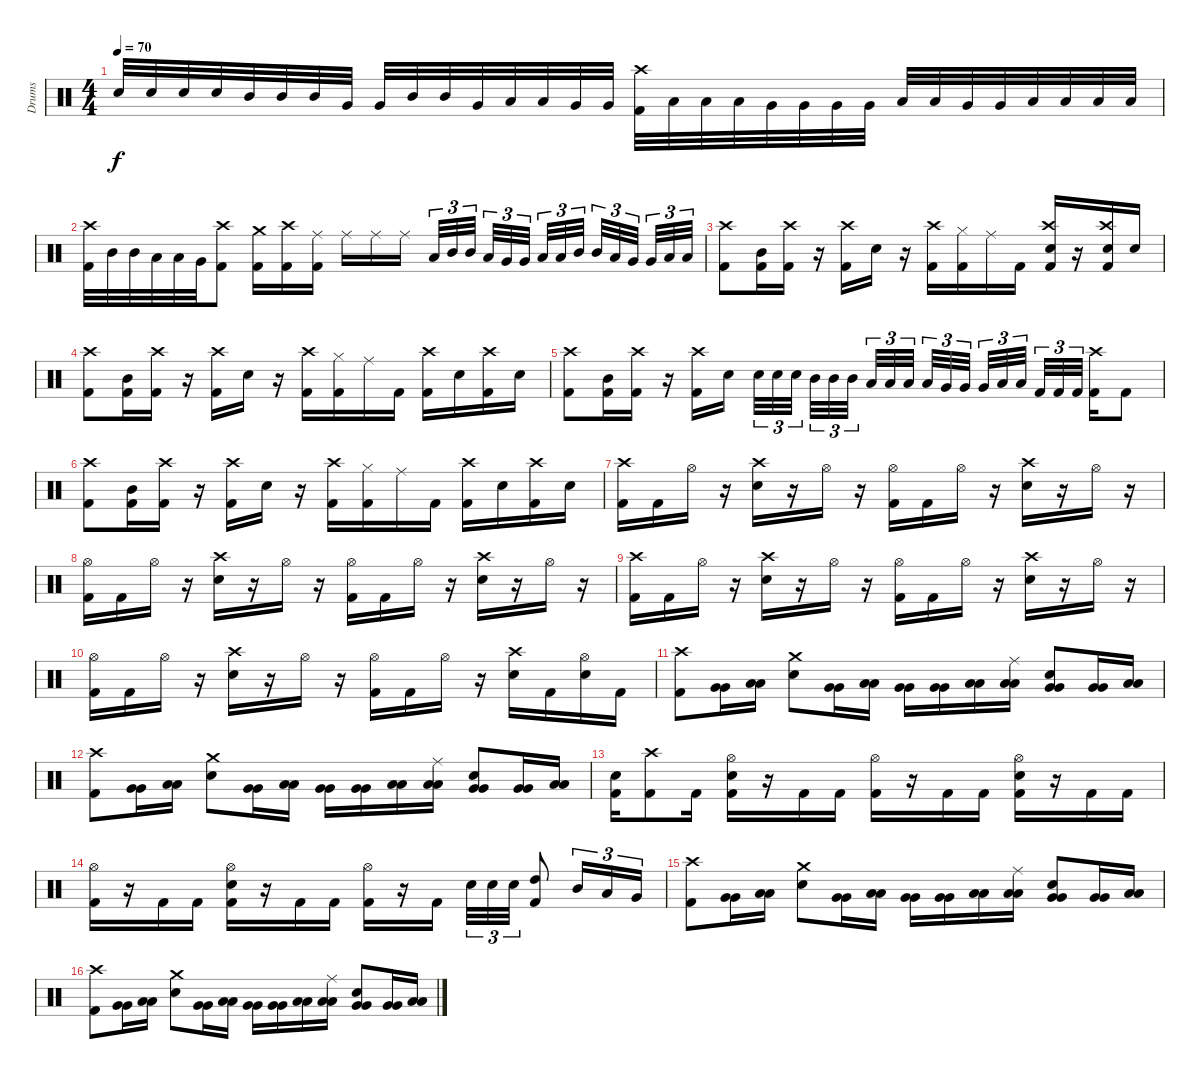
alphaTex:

\track ("Drums" "Drums") {instrument percussion}
\staff {score}
\articulation defaults
\ts (4 4)
\tempo 70
\clef neutral
\ks c "Snare (hit) 2".32{dy f} "Snare (hit) 2".32 "Snare (hit) 2".32 "Snare (hit) 2".32 "Mid Tom (hit)".32 "Mid Tom (hit)".32 "Mid Tom (hit)".32 "Very Low Tom (hit)".32 "Very Low Tom (hit)".32 "Mid Tom (hit)".32 "Mid Tom (hit)".32 "Very Low Tom (hit)".32 "Low Tom (hit)".32 "Low Tom (hit)".32 "Very Low Tom (hit)".32 "Very Low Tom (hit)".32
("Crash high (hit)" "Kick (hit) 2").32 "Low Tom (hit)".32 "Low Tom (hit)".32 "Low Tom (hit)".32 "Very Low Tom (hit)".32 "Very Low Tom (hit)".32 "Very Low Tom (hit)".32 "Very Low Tom (hit)".32 "Low Floor Tom (hit)".32 "Low Floor Tom (hit)".32 "Very Low Tom (hit)".32 "Very Low Tom (hit)".32 "Low Tom (hit)".32 "Low Tom (hit)".32 "Low Floor Tom (hit)".32 "Low Floor Tom (hit)".32 |
("Crash high (hit)" "Kick (hit) 2").32 "Mid Tom (hit)".32 "Mid Tom (hit)".32 "Low Tom (hit)".32 "Low Tom (hit)".32 "Very Low Tom (hit)".32 ("Crash high (hit)" "Kick (hit) 2").8 ("Crash medium (hit)" "Kick (hit) 2").16 ("Crash high (hit)" "Kick (hit) 2").16 ("Ride (middle)" "Kick (hit) 2").16 "Ride (middle)".16 "Ride (middle)".16 "Ride (middle)".16 "Low Floor Tom (hit)".32{tu (3 2)} "Mid Tom (hit)".32{tu (3 2)} "Mid Tom (hit)".32{tu (3 2)} "Low Tom (hit)".32{tu (3 2)} "Very Low Tom (hit)".32{tu (3 2)} "Very Low Tom (hit)".32{tu (3 2)} "Low Floor Tom (hit)".32{tu (3 2)} "Low Floor Tom (hit)".32{tu (3 2)} "Mid Tom (hit)".32{tu (3 2)} "Mid Tom (hit)".32{tu (3 2)} "Low Tom (hit)".32{tu (3 2)} "Very Low Tom (hit)".32{tu (3 2)} "Very Low Tom (hit)".32{tu (3 2)} "Low Floor Tom (hit)".32{tu (3 2)} "Low Floor Tom (hit)".32{tu (3 2)} |
("Crash high (hit)" "Kick (hit) 2").8 ("Mid Tom (hit)" "Kick (hit) 2").16 ("Crash high (hit)" "Kick (hit) 2").16 r.16 ("Crash high (hit)" "Kick (hit) 2").16 "Snare (hit) 2".16 r.16 ("Crash high (hit)" "Kick (hit) 2").16 ("Hi-Hat (closed)" "Kick (hit) 2").16 "Ride (middle)".16 "Kick (hit) 2".16 ("Crash high (hit)" "Snare (hit) 2" "Kick (hit) 2").16 r.16 ("Crash high (hit)" "Snare (hit) 2" "Kick (hit) 2").16 "Snare (hit) 2".16 |
("Crash high (hit)" "Kick (hit) 2").8 ("Mid Tom (hit)" "Kick (hit) 2").16 ("Crash high (hit)" "Kick (hit) 2").16 r.16 ("Crash high (hit)" "Kick (hit) 2").16 "Snare (hit) 2".16 r.16 ("Crash high (hit)" "Kick (hit) 2").16 ("Hi-Hat (closed)" "Kick (hit) 2").16 "Ride (middle)".16 "Kick (hit) 2".16 ("Crash high (hit)" "Kick (hit) 2").16 "Snare (hit) 2".16 ("Crash high (hit)" "Kick (hit) 2").16 "Snare (hit) 2".16 |
("Crash high (hit)" "Kick (hit) 2").8 ("Mid Tom (hit)" "Kick (hit) 2").16 ("Crash high (hit)" "Kick (hit) 2").16 r.16 ("Crash high (hit)" "Kick (hit) 2").16 "Snare (hit) 2".16 "Snare (hit) 2".32{tu (3 2)} "Snare (hit) 2".32{tu (3 2)} "Snare (hit) 2".32{tu (3 2)} "Mid Tom (hit)".32{tu (3 2)} "Mid Tom (hit)".32{tu (3 2)} "Mid Tom (hit)".32{tu (3 2)} "Low Tom (hit)".32{tu (3 2)} "Low Tom (hit)".32{tu (3 2)} "Low Tom (hit)".32{tu (3 2)} "Low Tom (hit)".32{tu (3 2)} "Very Low Tom (hit)".32{tu (3 2)} "Very Low Tom (hit)".32{tu (3 2)} "Very Low Tom (hit)".32{tu (3 2)} "Low Floor Tom (hit)".32{tu (3 2)} "Low Floor Tom (hit)".32{tu (3 2)} "Kick (hit) 2".32{tu (3 2)} "Kick (hit) 2".32{tu (3 2)} "Kick (hit) 2".32{tu (3 2)} ("Crash high (hit)" "Kick (hit) 2").16 "Kick (hit) 2".8 |
("Crash high (hit)" "Kick (hit) 2").8 ("Mid Tom (hit)" "Kick (hit) 2").16 ("Crash high (hit)" "Kick (hit) 2").16 r.16 ("Crash high (hit)" "Kick (hit) 2").16 "Snare (hit) 2".16 r.16 ("Crash high (hit)" "Kick (hit) 2").16 ("Hi-Hat (closed)" "Kick (hit) 2").16 "Ride (middle)".16 "Kick (hit) 2".16 ("Crash high (hit)" "Kick (hit) 2").16 "Snare (hit) 2".16 ("Crash high (hit)" "Kick (hit) 2").16 "Snare (hit) 2".16 |
("Crash high (hit)" "Kick (hit) 2").16 "Kick (hit) 2".16 "Hi-Hat (open)".16 r.16 ("Crash high (hit)" "Snare (hit) 2").16 r.16 "Hi-Hat (open)".16 r.16 ("Hi-Hat (open)" "Kick (hit) 2").16 "Kick (hit) 2".16 "Hi-Hat (open)".16 r.16 ("Crash high (hit)" "Snare (hit) 2").16 r.16 "Hi-Hat (open)".16 r.16 |
("Hi-Hat (open)" "Kick (hit) 2").16 "Kick (hit) 2".16 "Hi-Hat (open)".16 r.16 ("Crash high (hit)" "Snare (hit) 2").16 r.16 "Hi-Hat (open)".16 r.16 ("Hi-Hat (open)" "Kick (hit) 2").16 "Kick (hit) 2".16 "Hi-Hat (open)".16 r.16 ("Crash high (hit)" "Snare (hit) 2").16 r.16 "Hi-Hat (open)".16 r.16 |
("Crash high (hit)" "Kick (hit) 2").16 "Kick (hit) 2".16 "Hi-Hat (open)".16 r.16 ("Crash high (hit)" "Snare (hit) 2").16 r.16 "Hi-Hat (open)".16 r.16 ("Hi-Hat (open)" "Kick (hit) 2").16 "Kick (hit) 2".16 "Hi-Hat (open)".16 r.16 ("Crash high (hit)" "Snare (hit) 2").16 r.16 "Hi-Hat (open)".16 r.16 |
("Hi-Hat (open)" "Kick (hit) 2").16 "Kick (hit) 2".16 "Hi-Hat (open)".16 r.16 ("Crash high (hit)" "Snare (hit) 2").16 r.16 "Hi-Hat (open)".16 r.16 ("Hi-Hat (open)" "Kick (hit) 2").16 "Kick (hit) 2".16 "Hi-Hat (open)".16 r.16 ("Crash high (hit)" "Snare (hit) 2").16 "Kick (hit) 2".16 ("Hi-Hat (open)" "Snare (hit) 2").16 "Kick (hit) 2".16 |
("Crash high (hit)" "Kick (hit) 2").8 ("Very Low Tom (hit)" "Very Low Tom (hit)").16 ("Low Floor Tom (hit)" "Low Floor Tom (hit)").16 ("Crash medium (hit)" "Snare (hit) 2").8 ("Very Low Tom (hit)" "Very Low Tom (hit)").16 ("Low Floor Tom (hit)" "Low Floor Tom (hit)").16 ("Very Low Tom (hit)" "Very Low Tom (hit)").16 ("Very Low Tom (hit)" "Very Low Tom (hit)").16 ("Low Floor Tom (hit)" "Low Floor Tom (hit)").16 ("Ride (middle)" "Low Floor Tom (hit)" "Low Floor Tom (hit)").16 ("Very Low Tom (hit)" "Very Low Tom (hit)" "Snare (hit) 2").8 ("Very Low Tom (hit)" "Very Low Tom (hit)").16 ("Low Floor Tom (hit)" "Low Floor Tom (hit)").16 |
("Crash high (hit)" "Kick (hit) 2").8 ("Very Low Tom (hit)" "Very Low Tom (hit)").16 ("Low Floor Tom (hit)" "Low Floor Tom (hit)").16 ("Crash medium (hit)" "Snare (hit) 2").8 ("Very Low Tom (hit)" "Very Low Tom (hit)").16 ("Low Floor Tom (hit)" "Low Floor Tom (hit)").16 ("Very Low Tom (hit)" "Very Low Tom (hit)").16 ("Very Low Tom (hit)" "Very Low Tom (hit)").16 ("Low Floor Tom (hit)" "Low Floor Tom (hit)").16 ("Ride (middle)" "Low Floor Tom (hit)" "Low Floor Tom (hit)").16 ("Very Low Tom (hit)" "Very Low Tom (hit)" "Snare (hit) 2").8 ("Very Low Tom (hit)" "Very Low Tom (hit)").16 ("Low Floor Tom (hit)" "Low Floor Tom (hit)").16 |
("Snare (hit) 2" "Kick (hit) 2").16 ("Crash high (hit)" "Kick (hit) 2").8 "Kick (hit) 2".16 ("Hi-Hat (open)" "Snare (hit) 2" "Kick (hit) 2").16 r.16 "Kick (hit) 2".16 "Kick (hit) 2".16 ("Hi-Hat (open)" "Kick (hit) 2").16 r.16 "Kick (hit) 2".16 "Kick (hit) 2".16 ("Hi-Hat (open)" "Snare (hit) 2" "Kick (hit) 2").16 r.16 "Kick (hit) 2".16 "Kick (hit) 2".16 |
("Hi-Hat (open)" "Kick (hit) 2").16 r.16 "Kick (hit) 2".16 "Kick (hit) 2".16 ("Hi-Hat (open)" "Snare (hit) 2" "Kick (hit) 2").16 r.16 "Kick (hit) 2".16 "Kick (hit) 2".16 ("Hi-Hat (open)" "Kick (hit) 2").16 r.16 "Kick (hit) 2".16 "Snare (hit) 2".32{tu (3 2)} "Snare (hit) 2".32{tu (3 2)} "Snare (hit) 2".32{tu (3 2)} ("High Tom (hit)" "Kick (hit) 2").8 "Mid Tom (hit)".16{tu (3 2)} "Low Tom (hit)".16{tu (3 2)} "Very Low Tom (hit)".16{tu (3 2)} |
("Crash high (hit)" "Kick (hit) 2").8 ("Very Low Tom (hit)" "Very Low Tom (hit)").16 ("Low Floor Tom (hit)" "Low Floor Tom (hit)").16 ("Crash medium (hit)" "Snare (hit) 2").8 ("Very Low Tom (hit)" "Very Low Tom (hit)").16 ("Low Floor Tom (hit)" "Low Floor Tom (hit)").16 ("Very Low Tom (hit)" "Very Low Tom (hit)").16 ("Very Low Tom (hit)" "Very Low Tom (hit)").16 ("Low Floor Tom (hit)" "Low Floor Tom (hit)").16 ("Ride (middle)" "Low Floor Tom (hit)" "Low Floor Tom (hit)").16 ("Very Low Tom (hit)" "Very Low Tom (hit)" "Snare (hit) 2").8 ("Very Low Tom (hit)" "Very Low Tom (hit)").16 ("Low Floor Tom (hit)" "Low Floor Tom (hit)").16 |
("Crash high (hit)" "Kick (hit) 2").8 ("Very Low Tom (hit)" "Very Low Tom (hit)").16 ("Low Floor Tom (hit)" "Low Floor Tom (hit)").16 ("Crash medium (hit)" "Snare (hit) 2").8 ("Very Low Tom (hit)" "Very Low Tom (hit)").16 ("Low Floor Tom (hit)" "Low Floor Tom (hit)").16 ("Very Low Tom (hit)" "Very Low Tom (hit)").16 ("Very Low Tom (hit)" "Very Low Tom (hit)").16 ("Low Floor Tom (hit)" "Low Floor Tom (hit)").16 ("Ride (middle)" "Low Floor Tom (hit)" "Low Floor Tom (hit)").16 ("Very Low Tom (hit)" "Very Low Tom (hit)" "Snare (hit) 2").8 ("Very Low Tom (hit)" "Very Low Tom (hit)").16 ("Low Floor Tom (hit)" "Low Floor Tom (hit)").16
